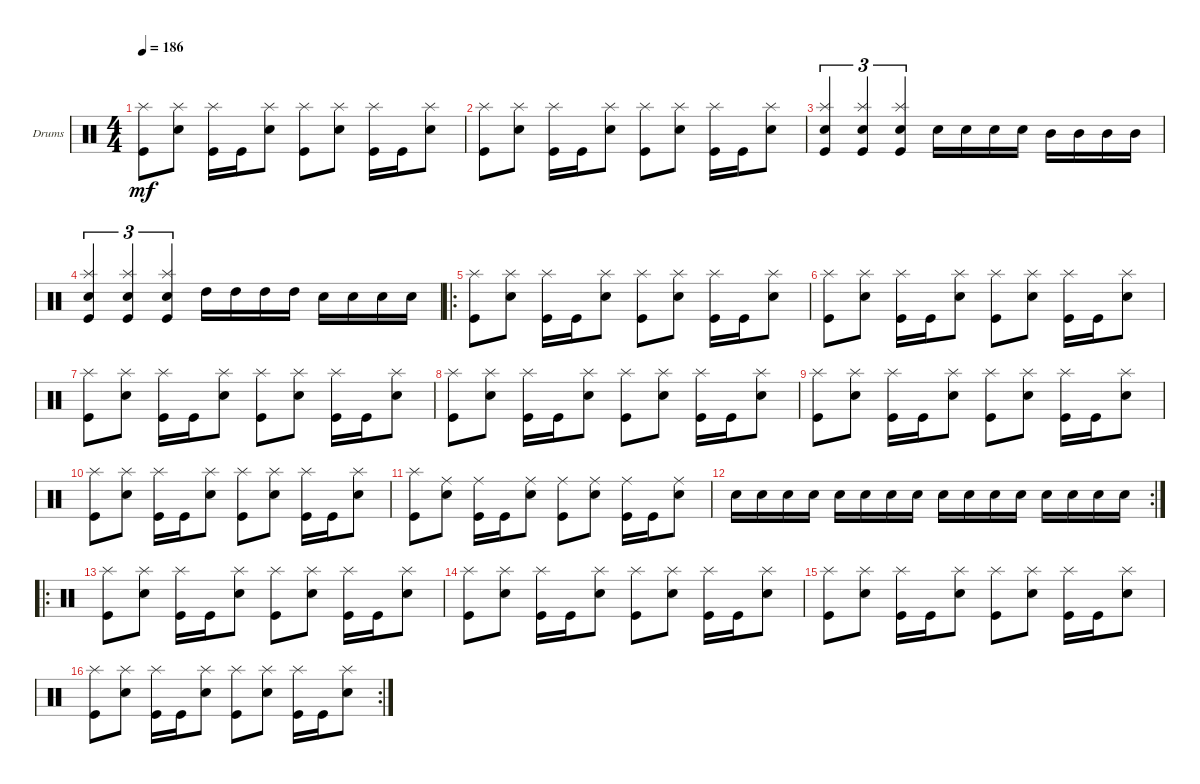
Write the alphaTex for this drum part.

\defaultSystemsLayout 4
\bracketExtendMode groupsimilarinstruments
\firstSystemTrackNameOrientation horizontal
\otherSystemsTrackNameOrientation horizontal
\track ("Drumkit" "Drums") {instrument percussion}
\staff {score}
\articulation defaults
\ts (4 4)
\tempo 186
\clef neutral
\ks c
("Kick (hit)" "Splash (hit)").8{dy mf} ("Snare (hit) 2" "Splash (hit)").8 ("Kick (hit)" "Splash (hit)").16 "Kick (hit)".16 ("Snare (hit) 2" "Splash (hit)").8 ("Kick (hit)" "Splash (hit)").8 ("Snare (hit) 2" "Splash (hit)").8 ("Kick (hit)" "Splash (hit)").16 "Kick (hit)".16 ("Snare (hit) 2" "Splash (hit)").8 |
("Kick (hit)" "Splash (hit)").8 ("Snare (hit) 2" "Splash (hit)").8 ("Kick (hit)" "Splash (hit)").16 "Kick (hit)".16 ("Snare (hit) 2" "Splash (hit)").8 ("Kick (hit)" "Splash (hit)").8 ("Snare (hit) 2" "Splash (hit)").8 ("Kick (hit)" "Splash (hit)").16 "Kick (hit)".16 ("Snare (hit) 2" "Splash (hit)").8 |
("Kick (hit)" "Splash (hit)" "Snare (hit) 2").4{tu (3 2)} ("Kick (hit)" "Splash (hit)" "Snare (hit) 2").4{tu (3 2)} ("Kick (hit)" "Splash (hit)" "Snare (hit) 2").4{tu (3 2)} "Snare (hit) 2".16 "Snare (hit) 2".16 "Snare (hit) 2".16 "Snare (hit) 2".16 "Mid Tom (hit)".16 "Mid Tom (hit)".16 "Mid Tom (hit)".16 "Mid Tom (hit)".16 |
("Kick (hit)" "Splash (hit)" "Snare (hit) 2").4{tu (3 2)} ("Kick (hit)" "Splash (hit)" "Snare (hit) 2").4{tu (3 2)} ("Kick (hit)" "Splash (hit)" "Snare (hit) 2").4{tu (3 2)} "High Tom (hit)".16 "High Tom (hit)".16 "High Tom (hit)".16 "High Tom (hit)".16 "Snare (hit) 2".16 "Snare (hit) 2".16 "Snare (hit) 2".16 "Snare (hit) 2".16 |
\ro
("Kick (hit)" "Splash (hit)").8 ("Snare (hit) 2" "Splash (hit)").8 ("Kick (hit)" "Splash (hit)").16 "Kick (hit)".16 ("Snare (hit) 2" "Splash (hit)").8 ("Kick (hit)" "Splash (hit)").8 ("Snare (hit) 2" "Splash (hit)").8 ("Kick (hit)" "Splash (hit)").16 "Kick (hit)".16 ("Snare (hit) 2" "Splash (hit)").8 |
("Kick (hit)" "Splash (hit)").8 ("Snare (hit) 2" "Splash (hit)").8 ("Kick (hit)" "Splash (hit)").16 "Kick (hit)".16 ("Snare (hit) 2" "Splash (hit)").8 ("Kick (hit)" "Splash (hit)").8 ("Snare (hit) 2" "Splash (hit)").8 ("Kick (hit)" "Splash (hit)").16 "Kick (hit)".16 ("Snare (hit) 2" "Splash (hit)").8 |
("Kick (hit)" "Splash (hit)").8 ("Snare (hit) 2" "Splash (hit)").8 ("Kick (hit)" "Splash (hit)").16 "Kick (hit)".16 ("Snare (hit) 2" "Splash (hit)").8 ("Kick (hit)" "Splash (hit)").8 ("Snare (hit) 2" "Splash (hit)").8 ("Kick (hit)" "Splash (hit)").16 "Kick (hit)".16 ("Snare (hit) 2" "Splash (hit)").8 |
("Kick (hit)" "Splash (hit)").8 ("Snare (hit) 2" "Splash (hit)").8 ("Kick (hit)" "Splash (hit)").16 "Kick (hit)".16 ("Snare (hit) 2" "Splash (hit)").8 ("Kick (hit)" "Splash (hit)").8 ("Snare (hit) 2" "Splash (hit)").8 ("Kick (hit)" "Splash (hit)").16 "Kick (hit)".16 ("Snare (hit) 2" "Splash (hit)").8 |
("Kick (hit)" "Splash (hit)").8 ("Snare (hit) 2" "Splash (hit)").8 ("Kick (hit)" "Splash (hit)").16 "Kick (hit)".16 ("Snare (hit) 2" "Splash (hit)").8 ("Kick (hit)" "Splash (hit)").8 ("Snare (hit) 2" "Splash (hit)").8 ("Kick (hit)" "Splash (hit)").16 "Kick (hit)".16 ("Snare (hit) 2" "Splash (hit)").8 |
("Kick (hit)" "Splash (hit)").8 ("Snare (hit) 2" "Splash (hit)").8 ("Kick (hit)" "Splash (hit)").16 "Kick (hit)".16 ("Snare (hit) 2" "Splash (hit)").8 ("Kick (hit)" "Splash (hit)").8 ("Snare (hit) 2" "Splash (hit)").8 ("Kick (hit)" "Splash (hit)").16 "Kick (hit)".16 ("Snare (hit) 2" "Splash (hit)").8 |
("Kick (hit)" "Splash (hit)").8 ("Snare (hit) 2" "Ride (middle)").8 ("Kick (hit)" "Ride (middle)").16 "Kick (hit)".16 ("Snare (hit) 2" "Ride (middle)").8 ("Kick (hit)" "Ride (middle)").8 ("Snare (hit) 2" "Ride (middle)").8 ("Kick (hit)" "Ride (middle)").16 "Kick (hit)".16 ("Snare (hit) 2" "Ride (middle)").8 |
\rc 2 "Snare (hit) 2".16 "Snare (hit) 2".16 "Snare (hit) 2".16 "Snare (hit) 2".16 "Snare (hit) 2".16 "Snare (hit) 2".16 "Snare (hit) 2".16 "Snare (hit) 2".16 "Snare (hit) 2".16 "Snare (hit) 2".16 "Snare (hit) 2".16 "Snare (hit) 2".16 "Snare (hit) 2".16 "Snare (hit) 2".16 "Snare (hit) 2".16 "Snare (hit) 2".16
|
\ro
("Kick (hit)" "Splash (hit)").8 ("Snare (hit) 2" "Splash (hit)").8 ("Kick (hit)" "Splash (hit)").16 "Kick (hit)".16 ("Snare (hit) 2" "Splash (hit)").8 ("Kick (hit)" "Splash (hit)").8 ("Snare (hit) 2" "Splash (hit)").8 ("Kick (hit)" "Splash (hit)").16 "Kick (hit)".16 ("Snare (hit) 2" "Splash (hit)").8 |
("Kick (hit)" "Splash (hit)").8 ("Snare (hit) 2" "Splash (hit)").8 ("Kick (hit)" "Splash (hit)").16 "Kick (hit)".16 ("Snare (hit) 2" "Splash (hit)").8 ("Kick (hit)" "Splash (hit)").8 ("Snare (hit) 2" "Splash (hit)").8 ("Kick (hit)" "Splash (hit)").16 "Kick (hit)".16 ("Snare (hit) 2" "Splash (hit)").8 |
("Kick (hit)" "Splash (hit)").8 ("Snare (hit) 2" "Splash (hit)").8 ("Kick (hit)" "Splash (hit)").16 "Kick (hit)".16 ("Snare (hit) 2" "Splash (hit)").8 ("Kick (hit)" "Splash (hit)").8 ("Snare (hit) 2" "Splash (hit)").8 ("Kick (hit)" "Splash (hit)").16 "Kick (hit)".16 ("Snare (hit) 2" "Splash (hit)").8 |
\rc 2
("Kick (hit)" "Splash (hit)").8 ("Snare (hit) 2" "Splash (hit)").8 ("Kick (hit)" "Splash (hit)").16 "Kick (hit)".16 ("Snare (hit) 2" "Splash (hit)").8 ("Kick (hit)" "Splash (hit)").8 ("Snare (hit) 2" "Splash (hit)").8 ("Kick (hit)" "Splash (hit)").16 "Kick (hit)".16 ("Snare (hit) 2" "Splash (hit)").8
